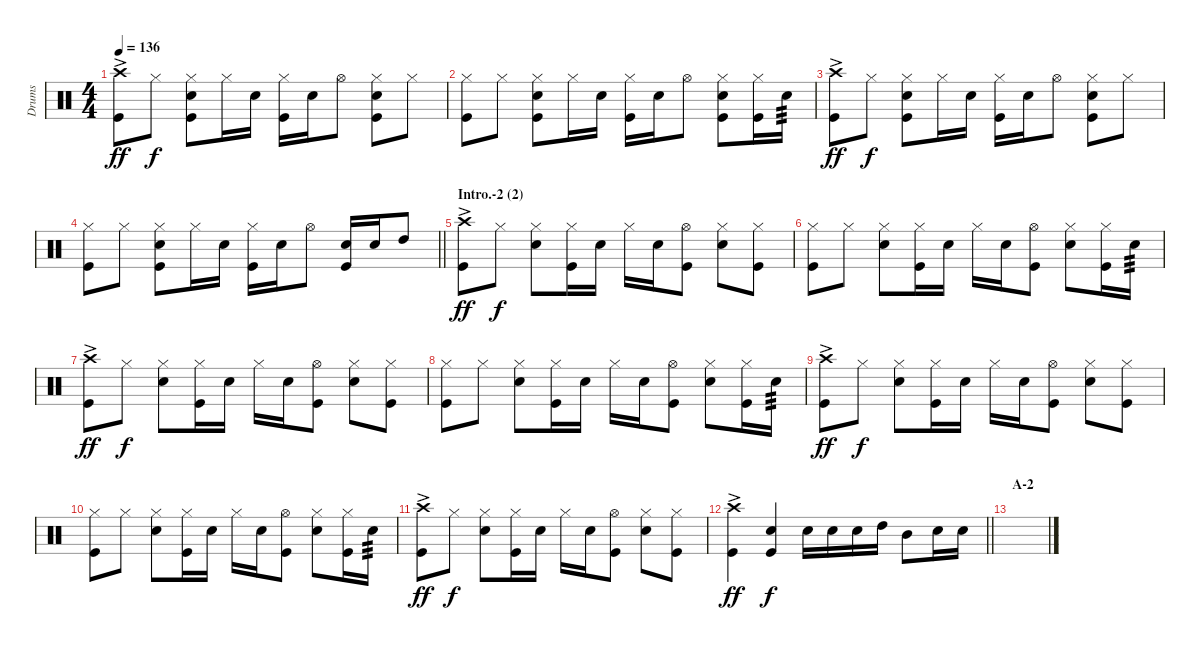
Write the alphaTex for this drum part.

\track ("Drums" "Drums") {instrument percussion}
\staff {score}
\articulation defaults
\ts (4 4)
\tempo 136
\clef neutral
\ks c
("Crash high (hit)"{ac} "Kick (hit)").8{dy ff} "Hi-Hat (closed)".8{dy f} ("Hi-Hat (closed)" "Snare (hit) 2" "Kick (hit)").8 "Hi-Hat (closed)".16 "Snare (hit) 2".16 ("Hi-Hat (closed)" "Kick (hit)").16 "Snare (hit) 2".16 "Hi-Hat (open)".8 ("Hi-Hat (closed)" "Snare (hit) 2" "Kick (hit)").8 "Hi-Hat (closed)".8 |
("Hi-Hat (closed)" "Kick (hit)").8 "Hi-Hat (closed)".8 ("Hi-Hat (closed)" "Snare (hit) 2" "Kick (hit)").8 "Hi-Hat (closed)".16 "Snare (hit) 2".16 ("Hi-Hat (closed)" "Kick (hit)").16 "Snare (hit) 2".16 "Hi-Hat (open)".8 ("Hi-Hat (closed)" "Snare (hit) 2" "Kick (hit)").8 ("Hi-Hat (closed)" "Kick (hit)").16 "Snare (hit) 2".16{tp 3} |
("Crash high (hit)"{ac} "Kick (hit)").8{dy ff} "Hi-Hat (closed)".8{dy f} ("Hi-Hat (closed)" "Snare (hit) 2" "Kick (hit)").8 "Hi-Hat (closed)".16 "Snare (hit) 2".16 ("Hi-Hat (closed)" "Kick (hit)").16 "Snare (hit) 2".16 "Hi-Hat (open)".8 ("Hi-Hat (closed)" "Snare (hit) 2" "Kick (hit)").8 "Hi-Hat (closed)".8 |
\barLineRight lightlight
("Hi-Hat (closed)" "Kick (hit)").8 "Hi-Hat (closed)".8 ("Hi-Hat (closed)" "Snare (hit) 2" "Kick (hit)").8 "Hi-Hat (closed)".16 "Snare (hit) 2".16 ("Hi-Hat (closed)" "Kick (hit)").16 "Snare (hit) 2".16 "Hi-Hat (open)".8 ("Snare (hit) 2" "Kick (hit)").16 "Snare (hit) 2".16 "High Tom (hit)".8 |
\section ("" "Intro.-2 (2)")
("Crash high (hit)"{ac} "Kick (hit)").8{dy ff} "Hi-Hat (closed)".8{dy f} ("Hi-Hat (closed)" "Snare (hit) 2").8 ("Hi-Hat (closed)" "Kick (hit)").16 "Snare (hit) 2".16 "Hi-Hat (closed)".16 "Snare (hit) 2".16 ("Hi-Hat (open)" "Kick (hit)").8 ("Hi-Hat (closed)" "Snare (hit) 2").8 ("Hi-Hat (closed)" "Kick (hit)").8 |
("Hi-Hat (closed)" "Kick (hit)").8 "Hi-Hat (closed)".8 ("Hi-Hat (closed)" "Snare (hit) 2").8 ("Hi-Hat (closed)" "Kick (hit)").16 "Snare (hit) 2".16 "Hi-Hat (closed)".16 "Snare (hit) 2".16 ("Hi-Hat (open)" "Kick (hit)").8 ("Hi-Hat (closed)" "Snare (hit) 2").8 ("Hi-Hat (closed)" "Kick (hit)").16 "Snare (hit) 2".16{tp 3} |
("Crash high (hit)"{ac} "Kick (hit)").8{dy ff} "Hi-Hat (closed)".8{dy f} ("Hi-Hat (closed)" "Snare (hit) 2").8 ("Hi-Hat (closed)" "Kick (hit)").16 "Snare (hit) 2".16 "Hi-Hat (closed)".16 "Snare (hit) 2".16 ("Hi-Hat (open)" "Kick (hit)").8 ("Hi-Hat (closed)" "Snare (hit) 2").8 ("Hi-Hat (closed)" "Kick (hit)").8 |
("Hi-Hat (closed)" "Kick (hit)").8 "Hi-Hat (closed)".8 ("Hi-Hat (closed)" "Snare (hit) 2").8 ("Hi-Hat (closed)" "Kick (hit)").16 "Snare (hit) 2".16 "Hi-Hat (closed)".16 "Snare (hit) 2".16 ("Hi-Hat (open)" "Kick (hit)").8 ("Hi-Hat (closed)" "Snare (hit) 2").8 ("Hi-Hat (closed)" "Kick (hit)").16 "Snare (hit) 2".16{tp 3} |
("Crash high (hit)"{ac} "Kick (hit)").8{dy ff} "Hi-Hat (closed)".8{dy f} ("Hi-Hat (closed)" "Snare (hit) 2").8 ("Hi-Hat (closed)" "Kick (hit)").16 "Snare (hit) 2".16 "Hi-Hat (closed)".16 "Snare (hit) 2".16 ("Hi-Hat (open)" "Kick (hit)").8 ("Hi-Hat (closed)" "Snare (hit) 2").8 ("Hi-Hat (closed)" "Kick (hit)").8 |
("Hi-Hat (closed)" "Kick (hit)").8 "Hi-Hat (closed)".8 ("Hi-Hat (closed)" "Snare (hit) 2").8 ("Hi-Hat (closed)" "Kick (hit)").16 "Snare (hit) 2".16 "Hi-Hat (closed)".16 "Snare (hit) 2".16 ("Hi-Hat (open)" "Kick (hit)").8 ("Hi-Hat (closed)" "Snare (hit) 2").8 ("Hi-Hat (closed)" "Kick (hit)").16 "Snare (hit) 2".16{tp 3} |
("Crash high (hit)"{ac} "Kick (hit)").8{dy ff} "Hi-Hat (closed)".8{dy f} ("Hi-Hat (closed)" "Snare (hit) 2").8 ("Hi-Hat (closed)" "Kick (hit)").16 "Snare (hit) 2".16 "Hi-Hat (closed)".16 "Snare (hit) 2".16 ("Hi-Hat (open)" "Kick (hit)").8 ("Hi-Hat (closed)" "Snare (hit) 2").8 ("Hi-Hat (closed)" "Kick (hit)").8 |
\barLineRight lightlight
("Crash high (hit)"{ac} "Kick (hit)").4{dy ff} ("Snare (hit) 2" "Kick (hit)").4{dy f} "Snare (hit) 2".16 "Snare (hit) 2".16 "Snare (hit) 2".16 "High Tom (hit)".16 "Mid Tom (hit)".8 "Snare (hit) 2".16 "Snare (hit) 2".16 |
\section ("" "A-2")
